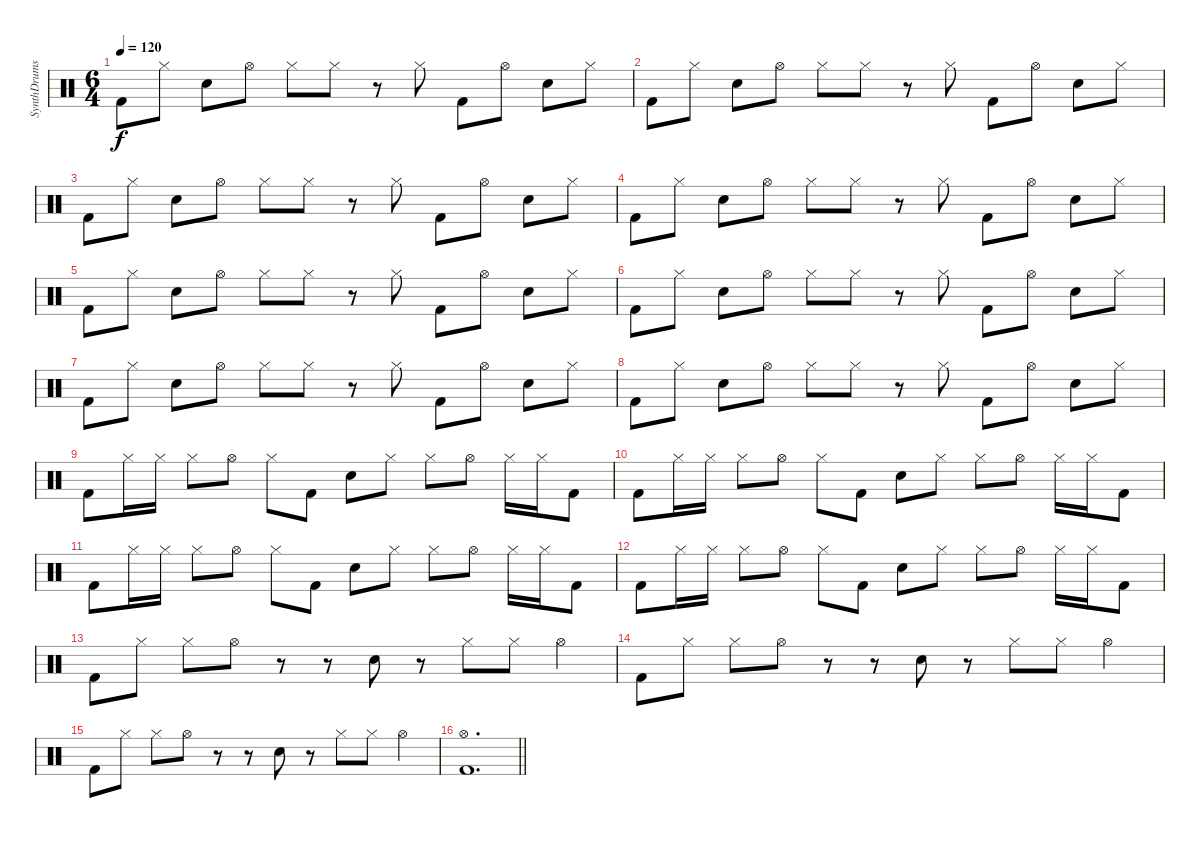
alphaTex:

\track ("SynthDrums" "SynthDrums") {instrument percussion}
\staff {score}
\articulation defaults
\ts (6 4)
\tempo 120
\clef neutral
\ks c "Kick (hit) 2".8{dy f} "Hi-Hat (closed)".8 "Snare (hit) 2".8 "Hi-Hat (open)".8 "Hi-Hat (closed)".8 "Hi-Hat (closed)".8
r.8 "Hi-Hat (closed)".8 "Kick (hit) 2".8 "Hi-Hat (open)".8 "Snare (hit) 2".8 "Hi-Hat (closed)".8 |
"Kick (hit) 2".8 "Hi-Hat (closed)".8 "Snare (hit) 2".8 "Hi-Hat (open)".8 "Hi-Hat (closed)".8 "Hi-Hat (closed)".8 r.8 "Hi-Hat (closed)".8 "Kick (hit) 2".8 "Hi-Hat (open)".8 "Snare (hit) 2".8 "Hi-Hat (closed)".8 |
"Kick (hit) 2".8 "Hi-Hat (closed)".8 "Snare (hit) 2".8 "Hi-Hat (open)".8 "Hi-Hat (closed)".8 "Hi-Hat (closed)".8 r.8 "Hi-Hat (closed)".8 "Kick (hit) 2".8 "Hi-Hat (open)".8 "Snare (hit) 2".8 "Hi-Hat (closed)".8 |
"Kick (hit) 2".8 "Hi-Hat (closed)".8 "Snare (hit) 2".8 "Hi-Hat (open)".8 "Hi-Hat (closed)".8 "Hi-Hat (closed)".8 r.8 "Hi-Hat (closed)".8 "Kick (hit) 2".8 "Hi-Hat (open)".8 "Snare (hit) 2".8 "Hi-Hat (closed)".8 |
"Kick (hit) 2".8 "Hi-Hat (closed)".8 "Snare (hit) 2".8 "Hi-Hat (open)".8 "Hi-Hat (closed)".8 "Hi-Hat (closed)".8 r.8 "Hi-Hat (closed)".8 "Kick (hit) 2".8 "Hi-Hat (open)".8 "Snare (hit) 2".8 "Hi-Hat (closed)".8 |
"Kick (hit) 2".8 "Hi-Hat (closed)".8 "Snare (hit) 2".8 "Hi-Hat (open)".8 "Hi-Hat (closed)".8 "Hi-Hat (closed)".8 r.8 "Hi-Hat (closed)".8 "Kick (hit) 2".8 "Hi-Hat (open)".8 "Snare (hit) 2".8 "Hi-Hat (closed)".8 |
"Kick (hit) 2".8 "Hi-Hat (closed)".8 "Snare (hit) 2".8 "Hi-Hat (open)".8 "Hi-Hat (closed)".8 "Hi-Hat (closed)".8 r.8 "Hi-Hat (closed)".8 "Kick (hit) 2".8 "Hi-Hat (open)".8 "Snare (hit) 2".8 "Hi-Hat (closed)".8 |
"Kick (hit) 2".8 "Hi-Hat (closed)".8 "Snare (hit) 2".8 "Hi-Hat (open)".8 "Hi-Hat (closed)".8 "Hi-Hat (closed)".8 r.8 "Hi-Hat (closed)".8 "Kick (hit) 2".8 "Hi-Hat (open)".8 "Snare (hit) 2".8 "Hi-Hat (closed)".8 |
"Kick (hit) 2".8 "Hi-Hat (closed)".16 "Hi-Hat (closed)".16 "Hi-Hat (closed)".8 "Hi-Hat (open)".8 "Hi-Hat (closed)".8 "Kick (hit) 2".8 "Electric Snare (hit)".8 "Hi-Hat (closed)".8 "Hi-Hat (closed)".8 "Hi-Hat (open)".8 "Hi-Hat (closed)".16 "Hi-Hat (closed)".16 "Kick (hit) 2".8 |
"Kick (hit) 2".8 "Hi-Hat (closed)".16 "Hi-Hat (closed)".16 "Hi-Hat (closed)".8 "Hi-Hat (open)".8 "Hi-Hat (closed)".8 "Kick (hit) 2".8 "Electric Snare (hit)".8 "Hi-Hat (closed)".8 "Hi-Hat (closed)".8 "Hi-Hat (open)".8 "Hi-Hat (closed)".16 "Hi-Hat (closed)".16 "Kick (hit) 2".8 |
"Kick (hit) 2".8 "Hi-Hat (closed)".16 "Hi-Hat (closed)".16 "Hi-Hat (closed)".8 "Hi-Hat (open)".8 "Hi-Hat (closed)".8 "Kick (hit) 2".8 "Electric Snare (hit)".8 "Hi-Hat (closed)".8 "Hi-Hat (closed)".8 "Hi-Hat (open)".8 "Hi-Hat (closed)".16 "Hi-Hat (closed)".16 "Kick (hit) 2".8 |
"Kick (hit) 2".8 "Hi-Hat (closed)".16 "Hi-Hat (closed)".16 "Hi-Hat (closed)".8 "Hi-Hat (open)".8 "Hi-Hat (closed)".8 "Kick (hit) 2".8 "Electric Snare (hit)".8 "Hi-Hat (closed)".8 "Hi-Hat (closed)".8 "Hi-Hat (open)".8 "Hi-Hat (closed)".16 "Hi-Hat (closed)".16 "Kick (hit) 2".8 |
"Kick (hit) 2".8 "Hi-Hat (closed)".8 "Hi-Hat (closed)".8 "Hi-Hat (open)".8 r.8 r.8 "Electric Snare (hit)".8 r.8 "Hi-Hat (closed)".8 "Hi-Hat (closed)".8 "Hi-Hat (open)".4 |
"Kick (hit) 2".8 "Hi-Hat (closed)".8 "Hi-Hat (closed)".8 "Hi-Hat (open)".8 r.8 r.8 "Electric Snare (hit)".8 r.8 "Hi-Hat (closed)".8 "Hi-Hat (closed)".8 "Hi-Hat (open)".4 |
"Kick (hit) 2".8 "Hi-Hat (closed)".8 "Hi-Hat (closed)".8 "Hi-Hat (open)".8 r.8 r.8 "Electric Snare (hit)".8 r.8 "Hi-Hat (closed)".8 "Hi-Hat (closed)".8 "Hi-Hat (open)".4 |
\barLineRight lightlight
("Hi-Hat (open)" "Kick (hit) 2").1{d}
